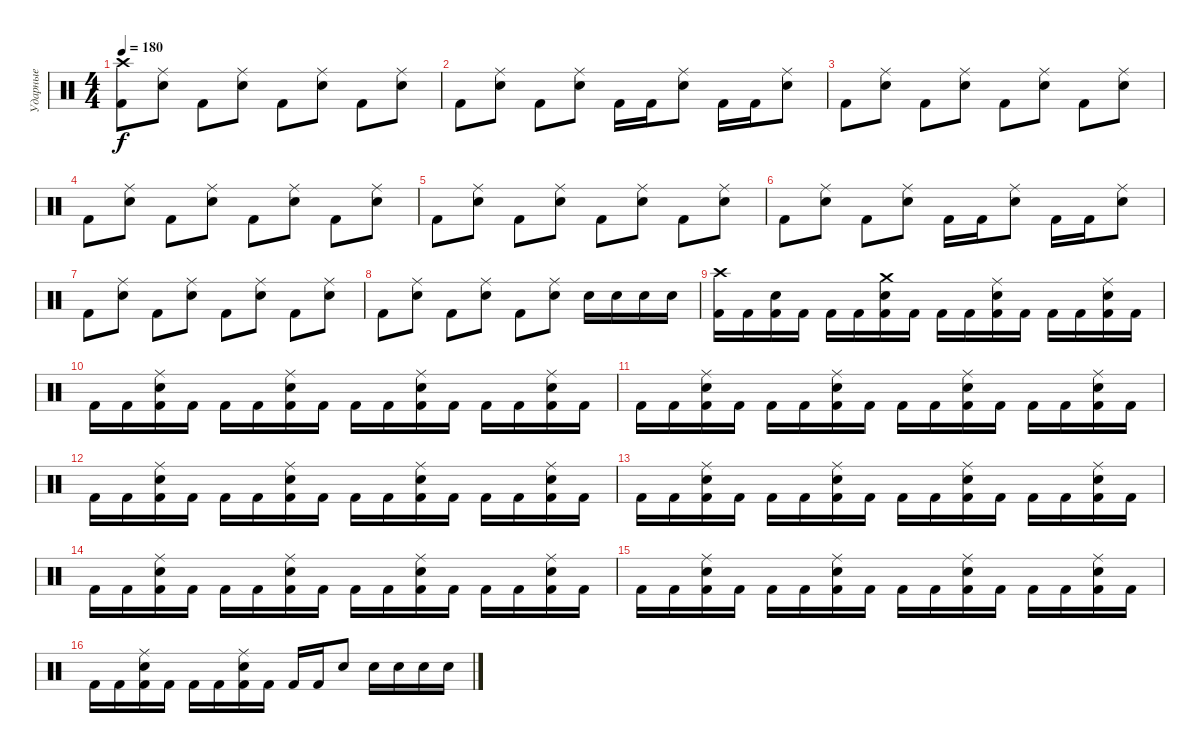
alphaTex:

\track ("Ударные" "Ударные") {instrument percussion}
\staff {score}
\articulation defaults
\ts (4 4)
\tempo 180
\clef neutral
\ks c
("Kick (hit) 2" "Crash high (hit)").8{dy f} ("Electric Snare (hit)" "Ride (middle)").8 "Kick (hit) 2".8 ("Electric Snare (hit)" "Ride (middle)").8 "Kick (hit) 2".8 ("Electric Snare (hit)" "Ride (middle)").8 "Kick (hit) 2".8 ("Electric Snare (hit)" "Ride (middle)").8 |
"Kick (hit) 2".8 ("Electric Snare (hit)" "Ride (middle)").8 "Kick (hit) 2".8 ("Electric Snare (hit)" "Ride (middle)").8 "Kick (hit) 2".16 "Kick (hit) 2".16 ("Electric Snare (hit)" "Ride (middle)").8 "Kick (hit) 2".16 "Kick (hit) 2".16 ("Electric Snare (hit)" "Ride (middle)").8 |
"Kick (hit) 2".8 ("Electric Snare (hit)" "Ride (middle)").8 "Kick (hit) 2".8 ("Electric Snare (hit)" "Ride (middle)").8 "Kick (hit) 2".8 ("Electric Snare (hit)" "Ride (middle)").8 "Kick (hit) 2".8 ("Electric Snare (hit)" "Ride (middle)").8 |
"Kick (hit) 2".8 ("Electric Snare (hit)" "Ride (middle)").8 "Kick (hit) 2".8 ("Electric Snare (hit)" "Ride (middle)").8 "Kick (hit) 2".8 ("Electric Snare (hit)" "Ride (middle)").8 "Kick (hit) 2".8 ("Electric Snare (hit)" "Ride (middle)").8 |
"Kick (hit) 2".8 ("Electric Snare (hit)" "Ride (middle)").8 "Kick (hit) 2".8 ("Electric Snare (hit)" "Ride (middle)").8 "Kick (hit) 2".8 ("Electric Snare (hit)" "Ride (middle)").8 "Kick (hit) 2".8 ("Electric Snare (hit)" "Ride (middle)").8 |
"Kick (hit) 2".8 ("Electric Snare (hit)" "Ride (middle)").8 "Kick (hit) 2".8 ("Electric Snare (hit)" "Ride (middle)").8 "Kick (hit) 2".16 "Kick (hit) 2".16 ("Electric Snare (hit)" "Ride (middle)").8 "Kick (hit) 2".16 "Kick (hit) 2".16 ("Electric Snare (hit)" "Ride (middle)").8 |
"Kick (hit) 2".8 ("Electric Snare (hit)" "Ride (middle)").8 "Kick (hit) 2".8 ("Electric Snare (hit)" "Ride (middle)").8 "Kick (hit) 2".8 ("Electric Snare (hit)" "Ride (middle)").8 "Kick (hit) 2".8 ("Electric Snare (hit)" "Ride (middle)").8 |
"Kick (hit) 2".8 ("Electric Snare (hit)" "Ride (middle)").8 "Kick (hit) 2".8 ("Electric Snare (hit)" "Ride (middle)").8 "Kick (hit) 2".8 ("Electric Snare (hit)" "Ride (middle)").8 "Electric Snare (hit)".16 "Electric Snare (hit)".16 "Electric Snare (hit)".16 "Electric Snare (hit)".16 |
("Kick (hit) 2" "Crash high (hit)").16 "Kick (hit) 2".16 ("Kick (hit) 2" "Electric Snare (hit)").16 "Kick (hit) 2".16 "Kick (hit) 2".16 "Kick (hit) 2".16 ("Kick (hit) 2" "Electric Snare (hit)" "Crash medium (hit)").16 "Kick (hit) 2".16 "Kick (hit) 2".16 "Kick (hit) 2".16 ("Kick (hit) 2" "Electric Snare (hit)" "Ride (middle)").16 "Kick (hit) 2".16 "Kick (hit) 2".16 "Kick (hit) 2".16 ("Kick (hit) 2" "Electric Snare (hit)" "Ride (middle)").16 "Kick (hit) 2".16 |
"Kick (hit) 2".16 "Kick (hit) 2".16 ("Kick (hit) 2" "Electric Snare (hit)" "Ride (middle)").16 "Kick (hit) 2".16 "Kick (hit) 2".16 "Kick (hit) 2".16 ("Kick (hit) 2" "Electric Snare (hit)" "Ride (middle)").16 "Kick (hit) 2".16 "Kick (hit) 2".16 "Kick (hit) 2".16 ("Kick (hit) 2" "Electric Snare (hit)" "Ride (middle)").16 "Kick (hit) 2".16 "Kick (hit) 2".16 "Kick (hit) 2".16 ("Kick (hit) 2" "Electric Snare (hit)" "Ride (middle)").16 "Kick (hit) 2".16 |
"Kick (hit) 2".16 "Kick (hit) 2".16 ("Kick (hit) 2" "Electric Snare (hit)" "Ride (middle)").16 "Kick (hit) 2".16 "Kick (hit) 2".16 "Kick (hit) 2".16 ("Kick (hit) 2" "Electric Snare (hit)" "Ride (middle)").16 "Kick (hit) 2".16 "Kick (hit) 2".16 "Kick (hit) 2".16 ("Kick (hit) 2" "Electric Snare (hit)" "Ride (middle)").16 "Kick (hit) 2".16 "Kick (hit) 2".16 "Kick (hit) 2".16 ("Kick (hit) 2" "Electric Snare (hit)" "Ride (middle)").16 "Kick (hit) 2".16 |
"Kick (hit) 2".16 "Kick (hit) 2".16 ("Kick (hit) 2" "Electric Snare (hit)" "Ride (middle)").16 "Kick (hit) 2".16 "Kick (hit) 2".16 "Kick (hit) 2".16 ("Kick (hit) 2" "Electric Snare (hit)" "Ride (middle)").16 "Kick (hit) 2".16 "Kick (hit) 2".16 "Kick (hit) 2".16 ("Kick (hit) 2" "Electric Snare (hit)" "Ride (middle)").16 "Kick (hit) 2".16 "Kick (hit) 2".16 "Kick (hit) 2".16 ("Kick (hit) 2" "Electric Snare (hit)" "Ride (middle)").16 "Kick (hit) 2".16 |
"Kick (hit) 2".16 "Kick (hit) 2".16 ("Kick (hit) 2" "Electric Snare (hit)" "Ride (middle)").16 "Kick (hit) 2".16 "Kick (hit) 2".16 "Kick (hit) 2".16 ("Kick (hit) 2" "Electric Snare (hit)" "Ride (middle)").16 "Kick (hit) 2".16 "Kick (hit) 2".16 "Kick (hit) 2".16 ("Kick (hit) 2" "Electric Snare (hit)" "Ride (middle)").16 "Kick (hit) 2".16 "Kick (hit) 2".16 "Kick (hit) 2".16 ("Kick (hit) 2" "Electric Snare (hit)" "Ride (middle)").16 "Kick (hit) 2".16 |
"Kick (hit) 2".16 "Kick (hit) 2".16 ("Kick (hit) 2" "Electric Snare (hit)" "Ride (middle)").16 "Kick (hit) 2".16 "Kick (hit) 2".16 "Kick (hit) 2".16 ("Kick (hit) 2" "Electric Snare (hit)" "Ride (middle)").16 "Kick (hit) 2".16 "Kick (hit) 2".16 "Kick (hit) 2".16 ("Kick (hit) 2" "Electric Snare (hit)" "Ride (middle)").16 "Kick (hit) 2".16 "Kick (hit) 2".16 "Kick (hit) 2".16 ("Kick (hit) 2" "Electric Snare (hit)" "Ride (middle)").16 "Kick (hit) 2".16 |
"Kick (hit) 2".16 "Kick (hit) 2".16 ("Kick (hit) 2" "Electric Snare (hit)" "Ride (middle)").16 "Kick (hit) 2".16 "Kick (hit) 2".16 "Kick (hit) 2".16 ("Kick (hit) 2" "Electric Snare (hit)" "Ride (middle)").16 "Kick (hit) 2".16 "Kick (hit) 2".16 "Kick (hit) 2".16 ("Kick (hit) 2" "Electric Snare (hit)" "Ride (middle)").16 "Kick (hit) 2".16 "Kick (hit) 2".16 "Kick (hit) 2".16 ("Kick (hit) 2" "Electric Snare (hit)" "Ride (middle)").16 "Kick (hit) 2".16 |
"Kick (hit) 2".16 "Kick (hit) 2".16 ("Kick (hit) 2" "Electric Snare (hit)" "Ride (middle)").16 "Kick (hit) 2".16 "Kick (hit) 2".16 "Kick (hit) 2".16 ("Kick (hit) 2" "Electric Snare (hit)" "Ride (middle)").16 "Kick (hit) 2".16 "Kick (hit) 2".16 "Kick (hit) 2".16 "Electric Snare (hit)".8 "Electric Snare (hit)".16 "Electric Snare (hit)".16 "Electric Snare (hit)".16 "Electric Snare (hit)".16
